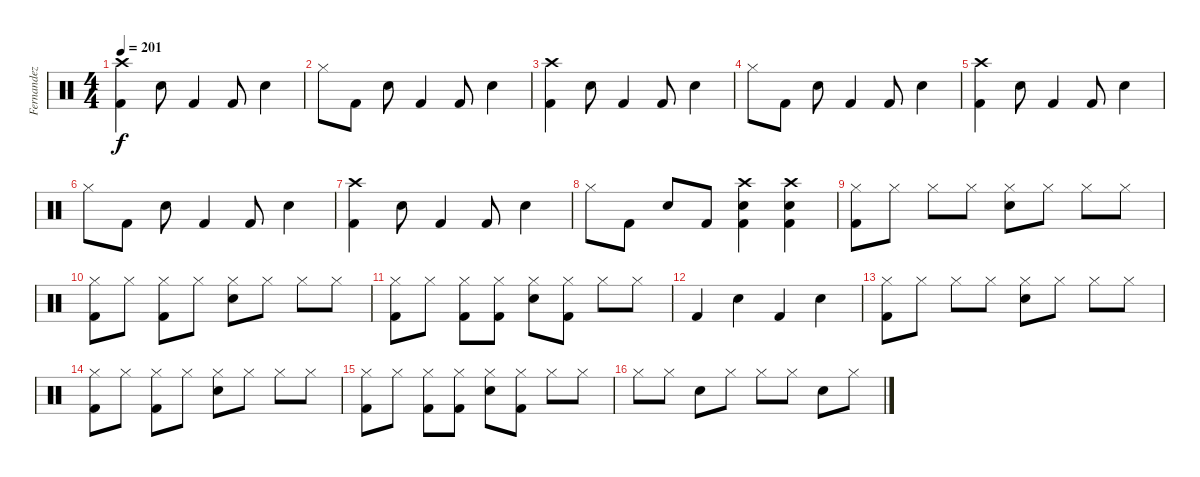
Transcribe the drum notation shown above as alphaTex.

\track ("Fernandez" "Fernandez") {instrument percussion}
\staff {score}
\articulation defaults
\ts (4 4)
\tempo 201
\clef neutral
\ks c
("Crash high (hit)" "Kick (hit) 2").4{dy f} "Snare (hit) 2".8 "Kick (hit) 2".4 "Kick (hit) 2".8 "Snare (hit) 2".4 |
"Hi-Hat (closed)".8 "Kick (hit) 2".8 "Snare (hit) 2".8 "Kick (hit) 2".4 "Kick (hit) 2".8 "Snare (hit) 2".4 |
("Crash high (hit)" "Kick (hit) 2").4 "Snare (hit) 2".8 "Kick (hit) 2".4 "Kick (hit) 2".8 "Snare (hit) 2".4 |
"Hi-Hat (closed)".8 "Kick (hit) 2".8 "Snare (hit) 2".8 "Kick (hit) 2".4 "Kick (hit) 2".8 "Snare (hit) 2".4 |
("Crash high (hit)" "Kick (hit) 2").4 "Snare (hit) 2".8 "Kick (hit) 2".4 "Kick (hit) 2".8 "Snare (hit) 2".4 |
"Hi-Hat (closed)".8 "Kick (hit) 2".8 "Snare (hit) 2".8 "Kick (hit) 2".4 "Kick (hit) 2".8 "Snare (hit) 2".4 |
("Crash high (hit)" "Kick (hit) 2").4 "Snare (hit) 2".8 "Kick (hit) 2".4 "Kick (hit) 2".8 "Snare (hit) 2".4 |
"Hi-Hat (closed)".8 "Kick (hit) 2".8 "Snare (hit) 2".8 "Kick (hit) 2".8 ("Kick (hit) 2" "Crash high (hit)" "Snare (hit) 2").4 ("Kick (hit) 2" "Crash high (hit)" "Snare (hit) 2").4 |
("Kick (hit) 2" "Hi-Hat (closed)").8 "Hi-Hat (closed)".8 "Hi-Hat (closed)".8 "Hi-Hat (closed)".8 ("Snare (hit) 2" "Hi-Hat (closed)").8 "Hi-Hat (closed)".8 "Hi-Hat (closed)".8 "Hi-Hat (closed)".8 |
("Kick (hit) 2" "Hi-Hat (closed)").8 "Hi-Hat (closed)".8 ("Kick (hit) 2" "Hi-Hat (closed)").8 "Hi-Hat (closed)".8 ("Snare (hit) 2" "Hi-Hat (closed)").8 "Hi-Hat (closed)".8 "Hi-Hat (closed)".8 "Hi-Hat (closed)".8 |
("Kick (hit) 2" "Hi-Hat (closed)").8 "Hi-Hat (closed)".8 ("Kick (hit) 2" "Hi-Hat (closed)").8 ("Kick (hit) 2" "Hi-Hat (closed)").8 ("Snare (hit) 2" "Hi-Hat (closed)").8 ("Kick (hit) 2" "Hi-Hat (closed)").8 "Hi-Hat (closed)".8 "Hi-Hat (closed)".8 |
"Kick (hit) 2".4 "Snare (hit) 2".4 "Kick (hit) 2".4 "Snare (hit) 2".4 |
("Kick (hit) 2" "Hi-Hat (closed)").8 "Hi-Hat (closed)".8 "Hi-Hat (closed)".8 "Hi-Hat (closed)".8 ("Snare (hit) 2" "Hi-Hat (closed)").8 "Hi-Hat (closed)".8 "Hi-Hat (closed)".8 "Hi-Hat (closed)".8 |
("Kick (hit) 2" "Hi-Hat (closed)").8 "Hi-Hat (closed)".8 ("Kick (hit) 2" "Hi-Hat (closed)").8 "Hi-Hat (closed)".8 ("Snare (hit) 2" "Hi-Hat (closed)").8 "Hi-Hat (closed)".8 "Hi-Hat (closed)".8 "Hi-Hat (closed)".8 |
("Kick (hit) 2" "Hi-Hat (closed)").8 "Hi-Hat (closed)".8 ("Kick (hit) 2" "Hi-Hat (closed)").8 ("Kick (hit) 2" "Hi-Hat (closed)").8 ("Snare (hit) 2" "Hi-Hat (closed)").8 ("Kick (hit) 2" "Hi-Hat (closed)").8 "Hi-Hat (closed)".8 "Hi-Hat (closed)".8 |
"Hi-Hat (closed)".8 "Hi-Hat (closed)".8 "Snare (hit) 2".8 "Hi-Hat (closed)".8 "Hi-Hat (closed)".8 "Hi-Hat (closed)".8 "Snare (hit) 2".8 "Hi-Hat (closed)".8
